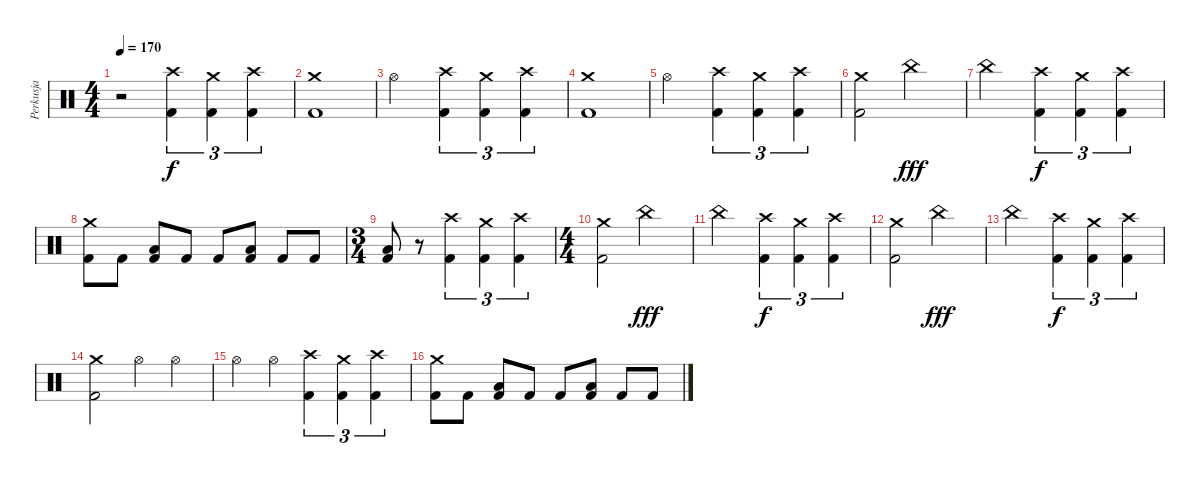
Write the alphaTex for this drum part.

\track ("Perkusja" "Perkusja") {instrument percussion}
\staff {score}
\articulation defaults
\ts (4 4)
\tempo 170
\clef neutral
\ks c
r.2{dy f} ("Crash high (hit)" "Kick (hit) 2").4{tu (3 2)} ("Crash medium (hit)" "Kick (hit) 2").4{tu (3 2)} ("Crash high (hit)" "Kick (hit) 2").4{tu (3 2)} |
("Crash medium (hit)" "Kick (hit) 2").1 |
"Hi-Hat (open)".2 ("Crash high (hit)" "Kick (hit) 2").4{tu (3 2)} ("Crash medium (hit)" "Kick (hit) 2").4{tu (3 2)} ("Crash high (hit)" "Kick (hit) 2").4{tu (3 2)} |
("Crash medium (hit)" "Kick (hit) 2").1 |
"Hi-Hat (open)".2 ("Crash high (hit)" "Kick (hit) 2").4{tu (3 2)} ("Crash medium (hit)" "Kick (hit) 2").4{tu (3 2)} ("Crash high (hit)" "Kick (hit) 2").4{tu (3 2)} |
("Crash medium (hit)" "Kick (hit) 2").2 "China (hit)".2{dy fff} |
"China (hit)".2 ("Crash high (hit)" "Kick (hit) 2").4{tu (3 2) dy f} ("Crash medium (hit)" "Kick (hit) 2").4{tu (3 2)} ("Crash high (hit)" "Kick (hit) 2").4{tu (3 2)} |
("Crash medium (hit)" "Kick (hit) 2").8 "Kick (hit) 2".8 ("Low Floor Tom (hit)" "Kick (hit) 2").8 "Kick (hit) 2".8 "Kick (hit) 2".8 ("Low Floor Tom (hit)" "Kick (hit) 2").8 "Kick (hit) 2".8 "Kick (hit) 2".8 |
\ts (3 4)
("Low Floor Tom (hit)" "Kick (hit) 2").8 r.8 ("Crash high (hit)" "Kick (hit) 2").4{tu (3 2)} ("Crash medium (hit)" "Kick (hit) 2").4{tu (3 2)} ("Crash high (hit)" "Kick (hit) 2").4{tu (3 2)} |
\ts (4 4)
("Crash medium (hit)" "Kick (hit) 2").2 "China (hit)".2{dy fff} |
"China (hit)".2 ("Crash high (hit)" "Kick (hit) 2").4{tu (3 2) dy f} ("Crash medium (hit)" "Kick (hit) 2").4{tu (3 2)} ("Crash high (hit)" "Kick (hit) 2").4{tu (3 2)} |
("Crash medium (hit)" "Kick (hit) 2").2 "China (hit)".2{dy fff} |
"China (hit)".2 ("Crash high (hit)" "Kick (hit) 2").4{tu (3 2) dy f} ("Crash medium (hit)" "Kick (hit) 2").4{tu (3 2)} ("Crash high (hit)" "Kick (hit) 2").4{tu (3 2)} |
("Crash medium (hit)" "Kick (hit) 2").2 "Hi-Hat (open)".4 "Hi-Hat (open)".4 |
"Hi-Hat (open)".4 "Hi-Hat (open)".4 ("Crash high (hit)" "Kick (hit) 2").4{tu (3 2)} ("Crash medium (hit)" "Kick (hit) 2").4{tu (3 2)} ("Crash high (hit)" "Kick (hit) 2").4{tu (3 2)} |
("Crash medium (hit)" "Kick (hit) 2").8 "Kick (hit) 2".8 ("Low Floor Tom (hit)" "Kick (hit) 2").8 "Kick (hit) 2".8 "Kick (hit) 2".8 ("Low Floor Tom (hit)" "Kick (hit) 2").8 "Kick (hit) 2".8 "Kick (hit) 2".8
